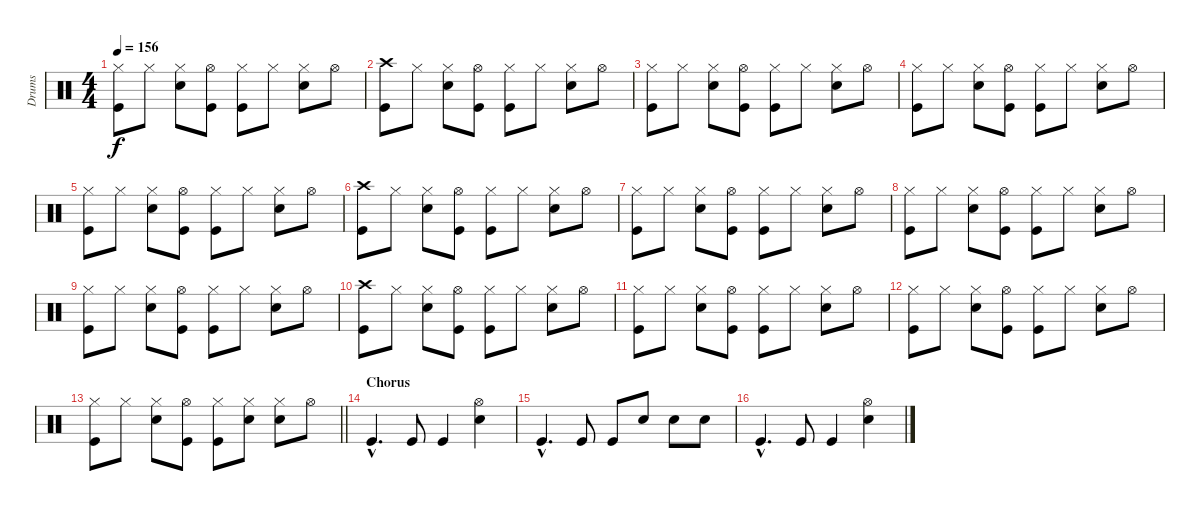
\track ("Drums" "Drums") {instrument percussion}
\staff {score}
\articulation defaults
\ts (4 4)
\tempo 156
\clef neutral
\ks c
("Hi-Hat (closed)" "Kick (hit)").8{dy f} "Hi-Hat (closed)".8 ("Hi-Hat (closed)" "Snare (hit) 2").8 ("Hi-Hat (open)" "Kick (hit)").8 ("Hi-Hat (closed)" "Kick (hit)").8 "Hi-Hat (closed)".8 ("Hi-Hat (closed)" "Snare (hit) 2").8 "Hi-Hat (open)".8 |
("Crash high (hit)" "Kick (hit)").8 "Hi-Hat (closed)".8 ("Hi-Hat (closed)" "Snare (hit) 2").8 ("Hi-Hat (open)" "Kick (hit)").8 ("Hi-Hat (closed)" "Kick (hit)").8 "Hi-Hat (closed)".8 ("Hi-Hat (closed)" "Snare (hit) 2").8 "Hi-Hat (open)".8 |
("Hi-Hat (closed)" "Kick (hit)").8 "Hi-Hat (closed)".8 ("Hi-Hat (closed)" "Snare (hit) 2").8 ("Hi-Hat (open)" "Kick (hit)").8 ("Hi-Hat (closed)" "Kick (hit)").8 "Hi-Hat (closed)".8 ("Hi-Hat (closed)" "Snare (hit) 2").8 "Hi-Hat (open)".8 |
("Hi-Hat (closed)" "Kick (hit)").8 "Hi-Hat (closed)".8 ("Hi-Hat (closed)" "Snare (hit) 2").8 ("Hi-Hat (open)" "Kick (hit)").8 ("Hi-Hat (closed)" "Kick (hit)").8 "Hi-Hat (closed)".8 ("Hi-Hat (closed)" "Snare (hit) 2").8 "Hi-Hat (open)".8 |
("Hi-Hat (closed)" "Kick (hit)").8 "Hi-Hat (closed)".8 ("Hi-Hat (closed)" "Snare (hit) 2").8 ("Hi-Hat (open)" "Kick (hit)").8 ("Hi-Hat (closed)" "Kick (hit)").8 "Hi-Hat (closed)".8 ("Hi-Hat (closed)" "Snare (hit) 2").8 "Hi-Hat (open)".8 |
("Crash high (hit)" "Kick (hit)").8 "Hi-Hat (closed)".8 ("Hi-Hat (closed)" "Snare (hit) 2").8 ("Hi-Hat (open)" "Kick (hit)").8 ("Hi-Hat (closed)" "Kick (hit)").8 "Hi-Hat (closed)".8 ("Hi-Hat (closed)" "Snare (hit) 2").8 "Hi-Hat (open)".8 |
("Hi-Hat (closed)" "Kick (hit)").8 "Hi-Hat (closed)".8 ("Hi-Hat (closed)" "Snare (hit) 2").8 ("Hi-Hat (open)" "Kick (hit)").8 ("Hi-Hat (closed)" "Kick (hit)").8 "Hi-Hat (closed)".8 ("Hi-Hat (closed)" "Snare (hit) 2").8 "Hi-Hat (open)".8 |
("Hi-Hat (closed)" "Kick (hit)").8 "Hi-Hat (closed)".8 ("Hi-Hat (closed)" "Snare (hit) 2").8 ("Hi-Hat (open)" "Kick (hit)").8 ("Hi-Hat (closed)" "Kick (hit)").8 "Hi-Hat (closed)".8 ("Hi-Hat (closed)" "Snare (hit) 2").8 "Hi-Hat (open)".8 |
("Hi-Hat (closed)" "Kick (hit)").8 "Hi-Hat (closed)".8 ("Hi-Hat (closed)" "Snare (hit) 2").8 ("Hi-Hat (open)" "Kick (hit)").8 ("Hi-Hat (closed)" "Kick (hit)").8 "Hi-Hat (closed)".8 ("Hi-Hat (closed)" "Snare (hit) 2").8 "Hi-Hat (open)".8 |
("Crash high (hit)" "Kick (hit)").8 "Hi-Hat (closed)".8 ("Hi-Hat (closed)" "Snare (hit) 2").8 ("Hi-Hat (open)" "Kick (hit)").8 ("Hi-Hat (closed)" "Kick (hit)").8 "Hi-Hat (closed)".8 ("Hi-Hat (closed)" "Snare (hit) 2").8 "Hi-Hat (open)".8 |
("Hi-Hat (closed)" "Kick (hit)").8 "Hi-Hat (closed)".8 ("Hi-Hat (closed)" "Snare (hit) 2").8 ("Hi-Hat (open)" "Kick (hit)").8 ("Hi-Hat (closed)" "Kick (hit)").8 "Hi-Hat (closed)".8 ("Hi-Hat (closed)" "Snare (hit) 2").8 "Hi-Hat (open)".8 |
("Hi-Hat (closed)" "Kick (hit)").8 "Hi-Hat (closed)".8 ("Hi-Hat (closed)" "Snare (hit) 2").8 ("Hi-Hat (open)" "Kick (hit)").8 ("Hi-Hat (closed)" "Kick (hit)").8 "Hi-Hat (closed)".8 ("Hi-Hat (closed)" "Snare (hit) 2").8 "Hi-Hat (open)".8 |
\barLineRight lightlight
("Hi-Hat (closed)" "Kick (hit)").8 "Hi-Hat (closed)".8 ("Hi-Hat (closed)" "Snare (hit) 2").8 ("Hi-Hat (open)" "Kick (hit)").8 ("Hi-Hat (closed)" "Kick (hit)").8 ("Hi-Hat (closed)" "Snare (hit) 2").8 ("Hi-Hat (closed)" "Snare (hit) 2").8 "Hi-Hat (open)".8 |
\section ("" "Chorus")
"Kick (hit)"{hac}.4{d} "Kick (hit)".8 "Kick (hit)".4 ("Hi-Hat (open)" "Snare (hit) 2").4 |
"Kick (hit)"{hac}.4{d} "Kick (hit)".8 "Kick (hit)".8 "Snare (hit) 2".8 "Snare (hit) 2".8 "Snare (hit) 2".8 |
"Kick (hit)"{hac}.4{d} "Kick (hit)".8 "Kick (hit)".4 ("Hi-Hat (open)" "Snare (hit) 2").4
